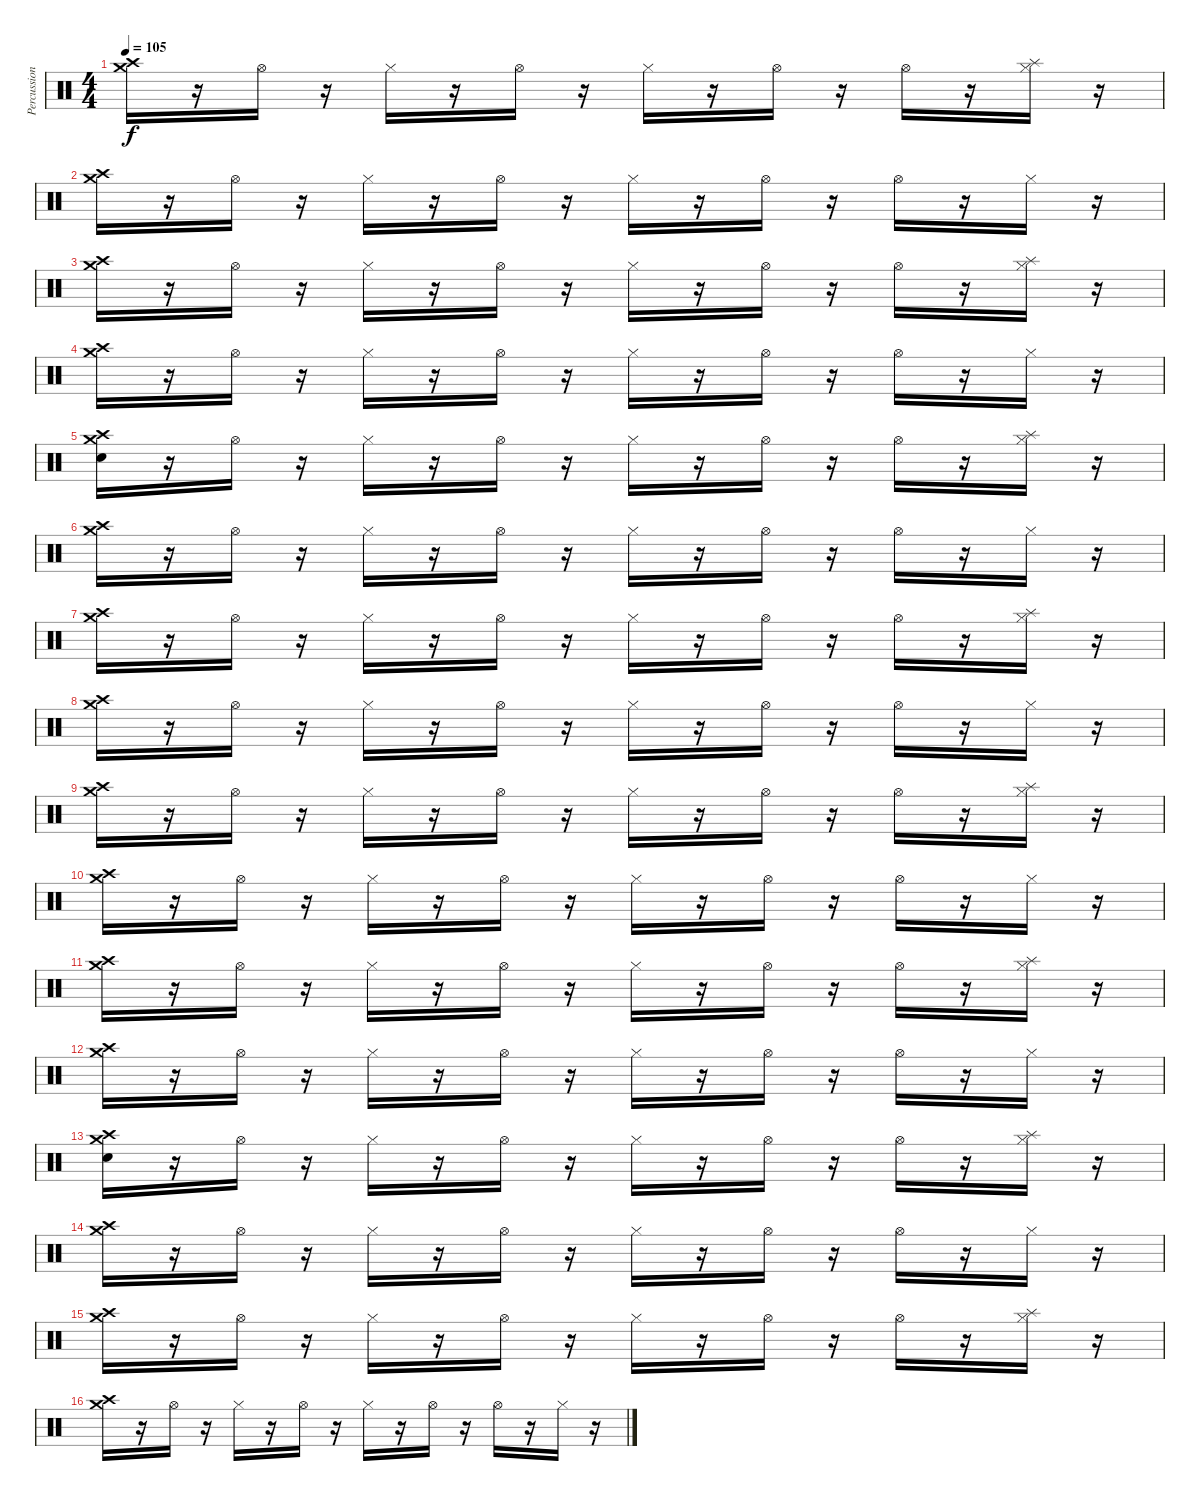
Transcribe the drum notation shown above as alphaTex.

\track ("Percussions+(scratchs Dj ombre)" "Percussion") {instrument percussion}
\staff {score}
\articulation defaults
\ts (4 4)
\tempo 105
\clef neutral
\ks c
("Crash high (hit)" "Crash medium (hit)").16{dy f} r.16 "Hi-Hat (open)".16 r.16 "Hi-Hat (closed)".16 r.16 "Hi-Hat (open)".16 r.16 "Hi-Hat (closed)".16 r.16 "Hi-Hat (open)".16 r.16 "Hi-Hat (open)".16 r.16 ("Hi-Hat (closed)" "Splash (hit)").16 r.16 |
("Crash high (hit)" "Crash medium (hit)").16 r.16 "Hi-Hat (open)".16 r.16 "Hi-Hat (closed)".16 r.16 "Hi-Hat (open)".16 r.16 "Hi-Hat (closed)".16 r.16 "Hi-Hat (open)".16 r.16 "Hi-Hat (open)".16 r.16 "Hi-Hat (closed)".16 r.16 |
("Crash high (hit)" "Crash medium (hit)").16 r.16 "Hi-Hat (open)".16 r.16 "Hi-Hat (closed)".16 r.16 "Hi-Hat (open)".16 r.16 "Hi-Hat (closed)".16 r.16 "Hi-Hat (open)".16 r.16 "Hi-Hat (open)".16 r.16 ("Hi-Hat (closed)" "Splash (hit)").16 r.16 |
("Crash high (hit)" "Crash medium (hit)").16 r.16 "Hi-Hat (open)".16 r.16 "Hi-Hat (closed)".16 r.16 "Hi-Hat (open)".16 r.16 "Hi-Hat (closed)".16 r.16 "Hi-Hat (open)".16 r.16 "Hi-Hat (open)".16 r.16 "Hi-Hat (closed)".16 r.16 |
("Crash high (hit)" "Crash medium (hit)" "Snare (hit)").16 r.16 "Hi-Hat (open)".16 r.16 "Hi-Hat (closed)".16 r.16 "Hi-Hat (open)".16 r.16 "Hi-Hat (closed)".16 r.16 "Hi-Hat (open)".16 r.16 "Hi-Hat (open)".16 r.16 ("Hi-Hat (closed)" "Splash (hit)").16 r.16 |
("Crash high (hit)" "Crash medium (hit)").16 r.16 "Hi-Hat (open)".16 r.16 "Hi-Hat (closed)".16 r.16 "Hi-Hat (open)".16 r.16 "Hi-Hat (closed)".16 r.16 "Hi-Hat (open)".16 r.16 "Hi-Hat (open)".16 r.16 "Hi-Hat (closed)".16 r.16 |
("Crash high (hit)" "Crash medium (hit)").16 r.16 "Hi-Hat (open)".16 r.16 "Hi-Hat (closed)".16 r.16 "Hi-Hat (open)".16 r.16 "Hi-Hat (closed)".16 r.16 "Hi-Hat (open)".16 r.16 "Hi-Hat (open)".16 r.16 ("Hi-Hat (closed)" "Splash (hit)").16 r.16 |
("Crash high (hit)" "Crash medium (hit)").16 r.16 "Hi-Hat (open)".16 r.16 "Hi-Hat (closed)".16 r.16 "Hi-Hat (open)".16 r.16 "Hi-Hat (closed)".16 r.16 "Hi-Hat (open)".16 r.16 "Hi-Hat (open)".16 r.16 "Hi-Hat (closed)".16 r.16 |
("Crash high (hit)" "Crash medium (hit)").16 r.16 "Hi-Hat (open)".16 r.16 "Hi-Hat (closed)".16 r.16 "Hi-Hat (open)".16 r.16 "Hi-Hat (closed)".16 r.16 "Hi-Hat (open)".16 r.16 "Hi-Hat (open)".16 r.16 ("Hi-Hat (closed)" "Splash (hit)").16 r.16 |
("Crash high (hit)" "Crash medium (hit)").16 r.16 "Hi-Hat (open)".16 r.16 "Hi-Hat (closed)".16 r.16 "Hi-Hat (open)".16 r.16 "Hi-Hat (closed)".16 r.16 "Hi-Hat (open)".16 r.16 "Hi-Hat (open)".16 r.16 "Hi-Hat (closed)".16 r.16 |
("Crash high (hit)" "Crash medium (hit)").16 r.16 "Hi-Hat (open)".16 r.16 "Hi-Hat (closed)".16 r.16 "Hi-Hat (open)".16 r.16 "Hi-Hat (closed)".16 r.16 "Hi-Hat (open)".16 r.16 "Hi-Hat (open)".16 r.16 ("Hi-Hat (closed)" "Splash (hit)").16 r.16 |
("Crash high (hit)" "Crash medium (hit)").16 r.16 "Hi-Hat (open)".16 r.16 "Hi-Hat (closed)".16 r.16 "Hi-Hat (open)".16 r.16 "Hi-Hat (closed)".16 r.16 "Hi-Hat (open)".16 r.16 "Hi-Hat (open)".16 r.16 "Hi-Hat (closed)".16 r.16 |
("Crash high (hit)" "Crash medium (hit)" "Snare (hit)").16 r.16 "Hi-Hat (open)".16 r.16 "Hi-Hat (closed)".16 r.16 "Hi-Hat (open)".16 r.16 "Hi-Hat (closed)".16 r.16 "Hi-Hat (open)".16 r.16 "Hi-Hat (open)".16 r.16 ("Hi-Hat (closed)" "Splash (hit)").16 r.16 |
("Crash high (hit)" "Crash medium (hit)").16 r.16 "Hi-Hat (open)".16 r.16 "Hi-Hat (closed)".16 r.16 "Hi-Hat (open)".16 r.16 "Hi-Hat (closed)".16 r.16 "Hi-Hat (open)".16 r.16 "Hi-Hat (open)".16 r.16 "Hi-Hat (closed)".16 r.16 |
("Crash high (hit)" "Crash medium (hit)").16 r.16 "Hi-Hat (open)".16 r.16 "Hi-Hat (closed)".16 r.16 "Hi-Hat (open)".16 r.16 "Hi-Hat (closed)".16 r.16 "Hi-Hat (open)".16 r.16 "Hi-Hat (open)".16 r.16 ("Hi-Hat (closed)" "Splash (hit)").16 r.16 |
("Crash high (hit)" "Crash medium (hit)").16 r.16 "Hi-Hat (open)".16 r.16 "Hi-Hat (closed)".16 r.16 "Hi-Hat (open)".16 r.16 "Hi-Hat (closed)".16 r.16 "Hi-Hat (open)".16 r.16 "Hi-Hat (open)".16 r.16 "Hi-Hat (closed)".16 r.16
